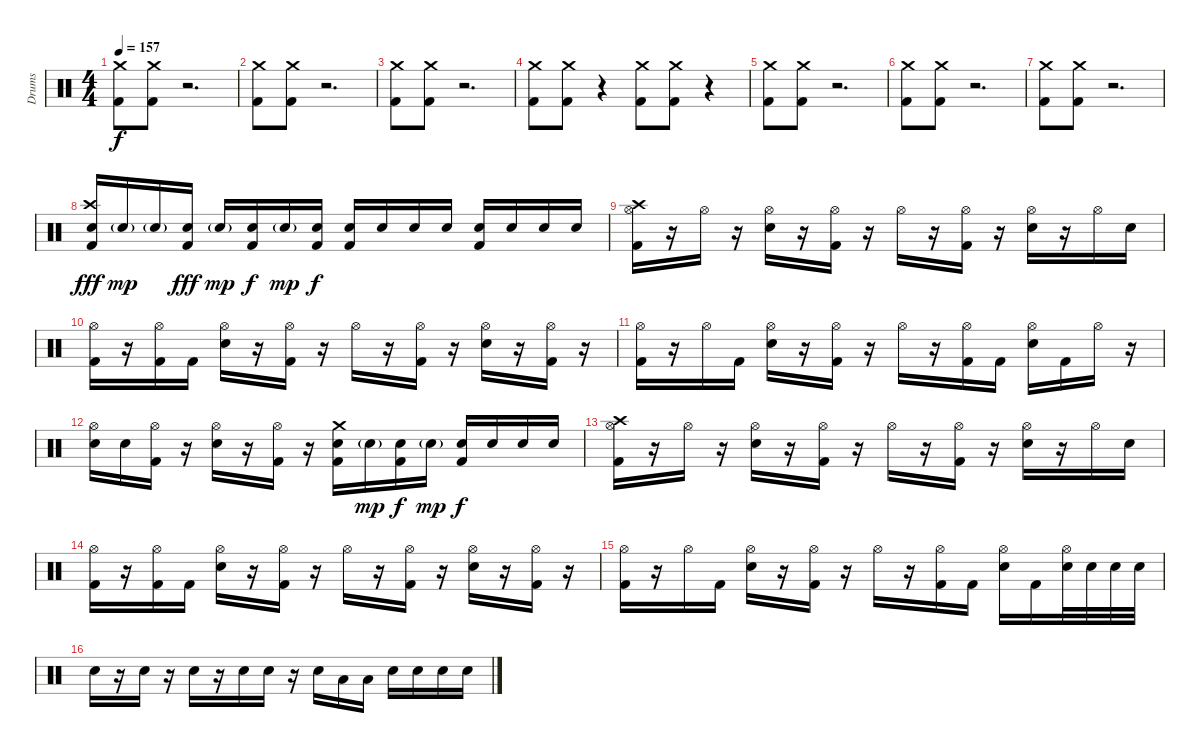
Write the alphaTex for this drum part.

\track ("Drums" "Drums") {instrument percussion}
\staff {score}
\articulation defaults
\ts (4 4)
\tempo 157
\clef neutral
\ks c
("Crash medium (hit)" "Kick (hit) 2").8{dy f} ("Crash medium (hit)" "Kick (hit) 2").8 r.2{d} |
("Crash medium (hit)" "Kick (hit) 2").8 ("Crash medium (hit)" "Kick (hit) 2").8 r.2{d} |
("Crash medium (hit)" "Kick (hit) 2").8 ("Crash medium (hit)" "Kick (hit) 2").8 r.2{d} |
("Crash medium (hit)" "Kick (hit) 2").8 ("Crash medium (hit)" "Kick (hit) 2").8 r.4 ("Crash medium (hit)" "Kick (hit) 2").8 ("Crash medium (hit)" "Kick (hit) 2").8 r.4 |
("Crash medium (hit)" "Kick (hit) 2").8 ("Crash medium (hit)" "Kick (hit) 2").8 r.2{d} |
("Crash medium (hit)" "Kick (hit) 2").8 ("Crash medium (hit)" "Kick (hit) 2").8 r.2{d} |
("Crash medium (hit)" "Kick (hit) 2").8 ("Crash medium (hit)" "Kick (hit) 2").8 r.2{d} |
("Crash high (hit)" "Electric Snare (hit)" "Kick (hit) 2").16{dy fff} "Electric Snare (hit)"{g}.16{dy mp} "Electric Snare (hit)"{g}.16 ("Electric Snare (hit)" "Kick (hit) 2").16{dy fff} "Electric Snare (hit)"{g}.16{dy mp} ("Electric Snare (hit)" "Kick (hit) 2").16{dy f} "Electric Snare (hit)"{g}.16{dy mp} ("Electric Snare (hit)" "Kick (hit) 2").16{dy f} ("Electric Snare (hit)" "Kick (hit) 2").16 "Electric Snare (hit)".16 "Electric Snare (hit)".16 "Electric Snare (hit)".16 ("Electric Snare (hit)" "Kick (hit) 2").16 "Electric Snare (hit)".16 "Electric Snare (hit)".16 "Electric Snare (hit)".16 |
("Hi-Hat (open)" "Crash high (hit)" "Kick (hit) 2").16 r.16 "Hi-Hat (open)".16 r.16 ("Hi-Hat (open)" "Electric Snare (hit)").16 r.16 ("Hi-Hat (open)" "Kick (hit) 2").16 r.16 "Hi-Hat (open)".16 r.16 ("Hi-Hat (open)" "Kick (hit) 2").16 r.16 ("Hi-Hat (open)" "Electric Snare (hit)").16 r.16 "Hi-Hat (open)".16 "Electric Snare (hit)".16 |
("Hi-Hat (open)" "Kick (hit) 2").16 r.16 ("Hi-Hat (open)" "Kick (hit) 2").16 "Kick (hit) 2".16 ("Hi-Hat (open)" "Electric Snare (hit)").16 r.16 ("Hi-Hat (open)" "Kick (hit) 2").16 r.16 "Hi-Hat (open)".16 r.16 ("Hi-Hat (open)" "Kick (hit) 2").16 r.16 ("Hi-Hat (open)" "Electric Snare (hit)").16 r.16 ("Hi-Hat (open)" "Kick (hit) 2").16 r.16 |
("Hi-Hat (open)" "Kick (hit) 2").16 r.16 "Hi-Hat (open)".16 "Kick (hit) 2".16 ("Hi-Hat (open)" "Electric Snare (hit)").16 r.16 ("Hi-Hat (open)" "Kick (hit) 2").16 r.16 "Hi-Hat (open)".16 r.16 ("Hi-Hat (open)" "Kick (hit) 2").16 "Kick (hit) 2".16 ("Hi-Hat (open)" "Electric Snare (hit)").16 "Kick (hit) 2".16 "Hi-Hat (open)".16 r.16 |
("Hi-Hat (open)" "Electric Snare (hit)").16 "Electric Snare (hit)".16 ("Hi-Hat (open)" "Kick (hit) 2").16 r.16 ("Hi-Hat (open)" "Electric Snare (hit)").16 r.16 ("Hi-Hat (open)" "Kick (hit) 2").16 r.16 ("Crash medium (hit)" "Electric Snare (hit)" "Kick (hit) 2").16 "Electric Snare (hit)"{g}.16{dy mp} ("Electric Snare (hit)" "Kick (hit) 2").16{dy f} "Electric Snare (hit)"{g}.16{dy mp} ("Electric Snare (hit)" "Kick (hit) 2").16{dy f} "Electric Snare (hit)".16 "Electric Snare (hit)".16 "Electric Snare (hit)".16 |
("Hi-Hat (open)" "Crash high (hit)" "Kick (hit) 2").16 r.16 "Hi-Hat (open)".16 r.16 ("Hi-Hat (open)" "Electric Snare (hit)").16 r.16 ("Hi-Hat (open)" "Kick (hit) 2").16 r.16 "Hi-Hat (open)".16 r.16 ("Hi-Hat (open)" "Kick (hit) 2").16 r.16 ("Hi-Hat (open)" "Electric Snare (hit)").16 r.16 "Hi-Hat (open)".16 "Electric Snare (hit)".16 |
("Hi-Hat (open)" "Kick (hit) 2").16 r.16 ("Hi-Hat (open)" "Kick (hit) 2").16 "Kick (hit) 2".16 ("Hi-Hat (open)" "Electric Snare (hit)").16 r.16 ("Hi-Hat (open)" "Kick (hit) 2").16 r.16 "Hi-Hat (open)".16 r.16 ("Hi-Hat (open)" "Kick (hit) 2").16 r.16 ("Hi-Hat (open)" "Electric Snare (hit)").16 r.16 ("Hi-Hat (open)" "Kick (hit) 2").16 r.16 |
("Hi-Hat (open)" "Kick (hit) 2").16 r.16 "Hi-Hat (open)".16 "Kick (hit) 2".16 ("Hi-Hat (open)" "Electric Snare (hit)").16 r.16 ("Hi-Hat (open)" "Kick (hit) 2").16 r.16 "Hi-Hat (open)".16 r.16 ("Hi-Hat (open)" "Kick (hit) 2").16 "Kick (hit) 2".16 ("Hi-Hat (open)" "Electric Snare (hit)").16 "Kick (hit) 2".16 ("Hi-Hat (open)" "Electric Snare (hit)").32 "Electric Snare (hit)".32 "Electric Snare (hit)".32 "Electric Snare (hit)".32 |
"Electric Snare (hit)".16 r.16 "Electric Snare (hit)".16 r.16 "Electric Snare (hit)".16 r.16 "Electric Snare (hit)".16 "Electric Snare (hit)".16 r.16 "Electric Snare (hit)".16 "Low Tom (hit)".16 "Low Tom (hit)".16 "Electric Snare (hit)".16 "Electric Snare (hit)".16 "Electric Snare (hit)".16 "Electric Snare (hit)".16
